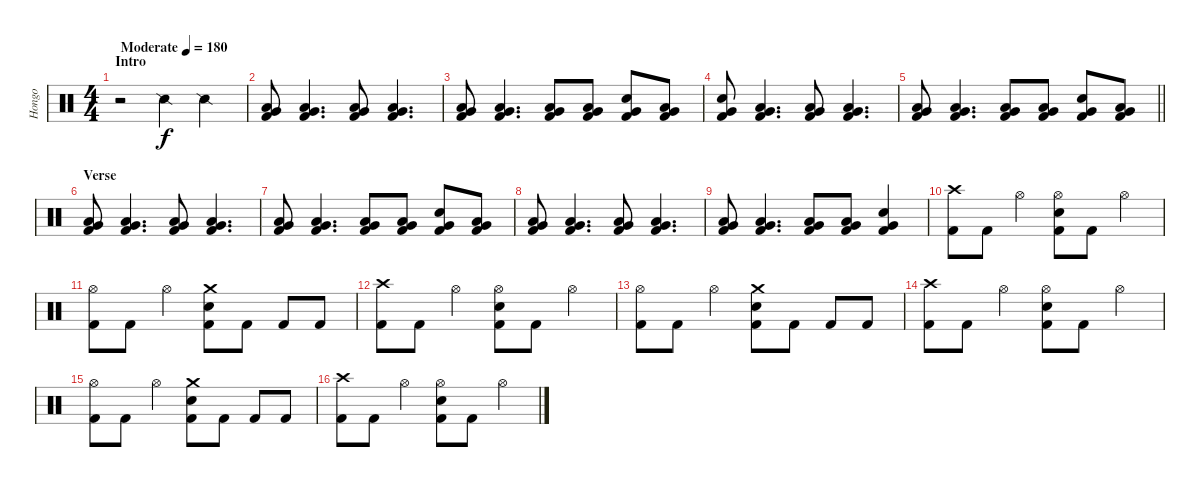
\track ("Hongo" "Hongo") {instrument percussion}
\staff {score}
\articulation defaults
\ts (4 4)
\section ("" "Intro")
\tempo (180 "Moderate")
\clef neutral
\ks c
r.2{dy f} "Snare (side stick) 2".4 "Snare (side stick) 2".4 |
("Low Tom (hit)" "Very Low Tom (hit)" "Kick (hit) 2").8 ("Low Tom (hit)" "Very Low Tom (hit)" "Kick (hit) 2").4{d} ("Low Tom (hit)" "Very Low Tom (hit)" "Kick (hit) 2").8 ("Low Tom (hit)" "Very Low Tom (hit)" "Kick (hit) 2").4{d} |
("Low Tom (hit)" "Very Low Tom (hit)" "Kick (hit) 2").8 ("Low Tom (hit)" "Very Low Tom (hit)" "Kick (hit) 2").4{d} ("Low Tom (hit)" "Very Low Tom (hit)" "Kick (hit) 2").8 ("Low Tom (hit)" "Very Low Tom (hit)" "Kick (hit) 2").8 ("Electric Snare (hit)" "Very Low Tom (hit)" "Kick (hit) 2").8 ("Low Tom (hit)" "Very Low Tom (hit)" "Kick (hit) 2").8 |
("Electric Snare (hit)" "Very Low Tom (hit)" "Kick (hit) 2").8 ("Low Tom (hit)" "Very Low Tom (hit)" "Kick (hit) 2").4{d} ("Low Tom (hit)" "Very Low Tom (hit)" "Kick (hit) 2").8 ("Low Tom (hit)" "Very Low Tom (hit)" "Kick (hit) 2").4{d} |
\barLineRight lightlight
("Low Tom (hit)" "Very Low Tom (hit)" "Kick (hit) 2").8 ("Low Tom (hit)" "Very Low Tom (hit)" "Kick (hit) 2").4{d} ("Low Tom (hit)" "Very Low Tom (hit)" "Kick (hit) 2").8 ("Low Tom (hit)" "Very Low Tom (hit)" "Kick (hit) 2").8 ("Electric Snare (hit)" "Very Low Tom (hit)" "Kick (hit) 2").8 ("Low Tom (hit)" "Very Low Tom (hit)" "Kick (hit) 2").8 |
\section ("" "Verse")
("Low Tom (hit)" "Very Low Tom (hit)" "Kick (hit) 2").8 ("Low Tom (hit)" "Very Low Tom (hit)" "Kick (hit) 2").4{d} ("Low Tom (hit)" "Very Low Tom (hit)" "Kick (hit) 2").8 ("Low Tom (hit)" "Very Low Tom (hit)" "Kick (hit) 2").4{d} |
("Low Tom (hit)" "Very Low Tom (hit)" "Kick (hit) 2").8 ("Low Tom (hit)" "Very Low Tom (hit)" "Kick (hit) 2").4{d} ("Low Tom (hit)" "Very Low Tom (hit)" "Kick (hit) 2").8 ("Low Tom (hit)" "Very Low Tom (hit)" "Kick (hit) 2").8 ("Electric Snare (hit)" "Very Low Tom (hit)" "Kick (hit) 2").8 ("Low Tom (hit)" "Very Low Tom (hit)" "Kick (hit) 2").8 |
("Low Tom (hit)" "Very Low Tom (hit)" "Kick (hit) 2").8 ("Low Tom (hit)" "Very Low Tom (hit)" "Kick (hit) 2").4{d} ("Low Tom (hit)" "Very Low Tom (hit)" "Kick (hit) 2").8 ("Low Tom (hit)" "Very Low Tom (hit)" "Kick (hit) 2").4{d} |
("Low Tom (hit)" "Very Low Tom (hit)" "Kick (hit) 2").8 ("Low Tom (hit)" "Very Low Tom (hit)" "Kick (hit) 2").4{d} ("Low Tom (hit)" "Very Low Tom (hit)" "Kick (hit) 2").8 ("Low Tom (hit)" "Very Low Tom (hit)" "Kick (hit) 2").8 ("Electric Snare (hit)" "Very Low Tom (hit)" "Kick (hit) 2").4 |
("Crash high (hit)" "Kick (hit) 2").8 "Kick (hit) 2".8 "Hi-Hat (open)".4 ("Hi-Hat (open)" "Electric Snare (hit)" "Kick (hit) 2").8 "Kick (hit) 2".8 "Hi-Hat (open)".4 |
("Hi-Hat (open)" "Kick (hit) 2").8 "Kick (hit) 2".8 "Hi-Hat (open)".4 ("Crash medium (hit)" "Electric Snare (hit)" "Kick (hit) 2").8 "Kick (hit) 2".8 "Kick (hit) 2".8 "Kick (hit) 2".8 |
("Crash high (hit)" "Kick (hit) 2").8 "Kick (hit) 2".8 "Hi-Hat (open)".4 ("Hi-Hat (open)" "Electric Snare (hit)" "Kick (hit) 2").8 "Kick (hit) 2".8 "Hi-Hat (open)".4 |
("Hi-Hat (open)" "Kick (hit) 2").8 "Kick (hit) 2".8 "Hi-Hat (open)".4 ("Crash medium (hit)" "Electric Snare (hit)" "Kick (hit) 2").8 "Kick (hit) 2".8 "Kick (hit) 2".8 "Kick (hit) 2".8 |
("Crash high (hit)" "Kick (hit) 2").8 "Kick (hit) 2".8 "Hi-Hat (open)".4 ("Hi-Hat (open)" "Electric Snare (hit)" "Kick (hit) 2").8 "Kick (hit) 2".8 "Hi-Hat (open)".4 |
("Hi-Hat (open)" "Kick (hit) 2").8 "Kick (hit) 2".8 "Hi-Hat (open)".4 ("Crash medium (hit)" "Electric Snare (hit)" "Kick (hit) 2").8 "Kick (hit) 2".8 "Kick (hit) 2".8 "Kick (hit) 2".8 |
("Crash high (hit)" "Kick (hit) 2").8 "Kick (hit) 2".8 "Hi-Hat (open)".4 ("Hi-Hat (open)" "Electric Snare (hit)" "Kick (hit) 2").8 "Kick (hit) 2".8 "Hi-Hat (open)".4
